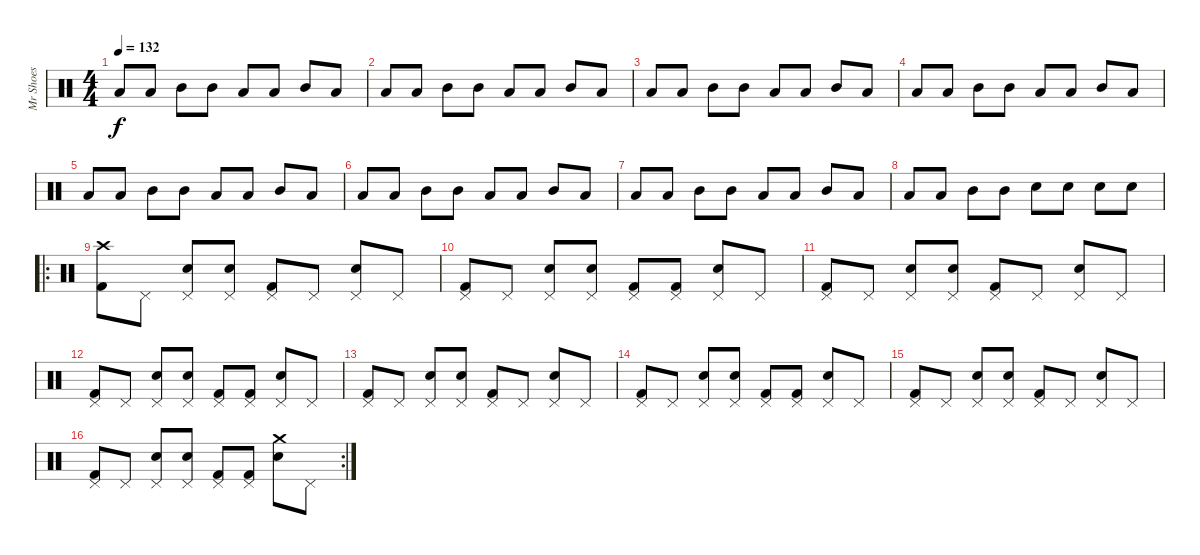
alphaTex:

\track ("Mr Shoes" "Mr Shoes") {instrument percussion}
\staff {score}
\articulation defaults
\ts (4 4)
\tempo 132
\clef neutral
\ks c "Low Floor Tom (hit)".8{dy f} "Low Floor Tom (hit)".8 "Mid Tom (hit)".8 "Mid Tom (hit)".8 "Low Floor Tom (hit)".8 "Low Floor Tom (hit)".8 "Mid Tom (hit)".8 "Low Floor Tom (hit)".8
|
"Low Floor Tom (hit)".8 "Low Floor Tom (hit)".8 "Mid Tom (hit)".8 "Mid Tom (hit)".8 "Low Floor Tom (hit)".8 "Low Floor Tom (hit)".8 "Mid Tom (hit)".8 "Low Floor Tom (hit)".8 |
"Low Floor Tom (hit)".8 "Low Floor Tom (hit)".8 "Mid Tom (hit)".8 "Mid Tom (hit)".8 "Low Floor Tom (hit)".8 "Low Floor Tom (hit)".8 "Mid Tom (hit)".8 "Low Floor Tom (hit)".8 |
"Low Floor Tom (hit)".8 "Low Floor Tom (hit)".8 "Mid Tom (hit)".8 "Mid Tom (hit)".8 "Low Floor Tom (hit)".8 "Low Floor Tom (hit)".8 "Mid Tom (hit)".8 "Low Floor Tom (hit)".8 |
"Low Floor Tom (hit)".8 "Low Floor Tom (hit)".8 "Mid Tom (hit)".8 "Mid Tom (hit)".8 "Low Floor Tom (hit)".8 "Low Floor Tom (hit)".8 "Mid Tom (hit)".8 "Low Floor Tom (hit)".8 |
"Low Floor Tom (hit)".8 "Low Floor Tom (hit)".8 "Mid Tom (hit)".8 "Mid Tom (hit)".8 "Low Floor Tom (hit)".8 "Low Floor Tom (hit)".8 "Mid Tom (hit)".8 "Low Floor Tom (hit)".8 |
"Low Floor Tom (hit)".8 "Low Floor Tom (hit)".8 "Mid Tom (hit)".8 "Mid Tom (hit)".8 "Low Floor Tom (hit)".8 "Low Floor Tom (hit)".8 "Mid Tom (hit)".8 "Low Floor Tom (hit)".8 |
"Low Floor Tom (hit)".8 "Low Floor Tom (hit)".8 "Mid Tom (hit)".8 "Mid Tom (hit)".8 "Electric Snare (hit)".8 "Electric Snare (hit)".8 "Electric Snare (hit)".8 "Electric Snare (hit)".8 |
\ro
("Kick (hit) 2" "Crash high (hit)").8 "Pedal Hi-Hat (hit)".8 ("Electric Snare (hit)" "Pedal Hi-Hat (hit)").8 ("Electric Snare (hit)" "Pedal Hi-Hat (hit)").8 ("Kick (hit) 2" "Pedal Hi-Hat (hit)").8 "Pedal Hi-Hat (hit)".8 ("Electric Snare (hit)" "Pedal Hi-Hat (hit)").8 "Pedal Hi-Hat (hit)".8 |
("Kick (hit) 2" "Pedal Hi-Hat (hit)").8 "Pedal Hi-Hat (hit)".8 ("Electric Snare (hit)" "Pedal Hi-Hat (hit)").8 ("Electric Snare (hit)" "Pedal Hi-Hat (hit)").8 ("Kick (hit) 2" "Pedal Hi-Hat (hit)").8 ("Kick (hit) 2" "Pedal Hi-Hat (hit)").8 ("Electric Snare (hit)" "Pedal Hi-Hat (hit)").8 "Pedal Hi-Hat (hit)".8 |
("Kick (hit) 2" "Pedal Hi-Hat (hit)").8 "Pedal Hi-Hat (hit)".8 ("Electric Snare (hit)" "Pedal Hi-Hat (hit)").8 ("Electric Snare (hit)" "Pedal Hi-Hat (hit)").8 ("Kick (hit) 2" "Pedal Hi-Hat (hit)").8 "Pedal Hi-Hat (hit)".8 ("Electric Snare (hit)" "Pedal Hi-Hat (hit)").8 "Pedal Hi-Hat (hit)".8 |
("Kick (hit) 2" "Pedal Hi-Hat (hit)").8 "Pedal Hi-Hat (hit)".8 ("Electric Snare (hit)" "Pedal Hi-Hat (hit)").8 ("Electric Snare (hit)" "Pedal Hi-Hat (hit)").8 ("Kick (hit) 2" "Pedal Hi-Hat (hit)").8 ("Kick (hit) 2" "Pedal Hi-Hat (hit)").8 ("Electric Snare (hit)" "Pedal Hi-Hat (hit)").8 "Pedal Hi-Hat (hit)".8 |
("Kick (hit) 2" "Pedal Hi-Hat (hit)").8 "Pedal Hi-Hat (hit)".8 ("Electric Snare (hit)" "Pedal Hi-Hat (hit)").8 ("Electric Snare (hit)" "Pedal Hi-Hat (hit)").8 ("Kick (hit) 2" "Pedal Hi-Hat (hit)").8 "Pedal Hi-Hat (hit)".8 ("Electric Snare (hit)" "Pedal Hi-Hat (hit)").8 "Pedal Hi-Hat (hit)".8 |
("Kick (hit) 2" "Pedal Hi-Hat (hit)").8 "Pedal Hi-Hat (hit)".8 ("Electric Snare (hit)" "Pedal Hi-Hat (hit)").8 ("Electric Snare (hit)" "Pedal Hi-Hat (hit)").8 ("Kick (hit) 2" "Pedal Hi-Hat (hit)").8 ("Kick (hit) 2" "Pedal Hi-Hat (hit)").8 ("Electric Snare (hit)" "Pedal Hi-Hat (hit)").8 "Pedal Hi-Hat (hit)".8 |
("Kick (hit) 2" "Pedal Hi-Hat (hit)").8 "Pedal Hi-Hat (hit)".8 ("Electric Snare (hit)" "Pedal Hi-Hat (hit)").8 ("Electric Snare (hit)" "Pedal Hi-Hat (hit)").8 ("Kick (hit) 2" "Pedal Hi-Hat (hit)").8 "Pedal Hi-Hat (hit)".8 ("Electric Snare (hit)" "Pedal Hi-Hat (hit)").8 "Pedal Hi-Hat (hit)".8 |
\rc 2
("Kick (hit) 2" "Pedal Hi-Hat (hit)").8 "Pedal Hi-Hat (hit)".8 ("Electric Snare (hit)" "Pedal Hi-Hat (hit)").8 ("Electric Snare (hit)" "Pedal Hi-Hat (hit)").8 ("Kick (hit) 2" "Pedal Hi-Hat (hit)").8 ("Kick (hit) 2" "Pedal Hi-Hat (hit)").8 ("Electric Snare (hit)" "Crash medium (hit)").8 "Pedal Hi-Hat (hit)".8
